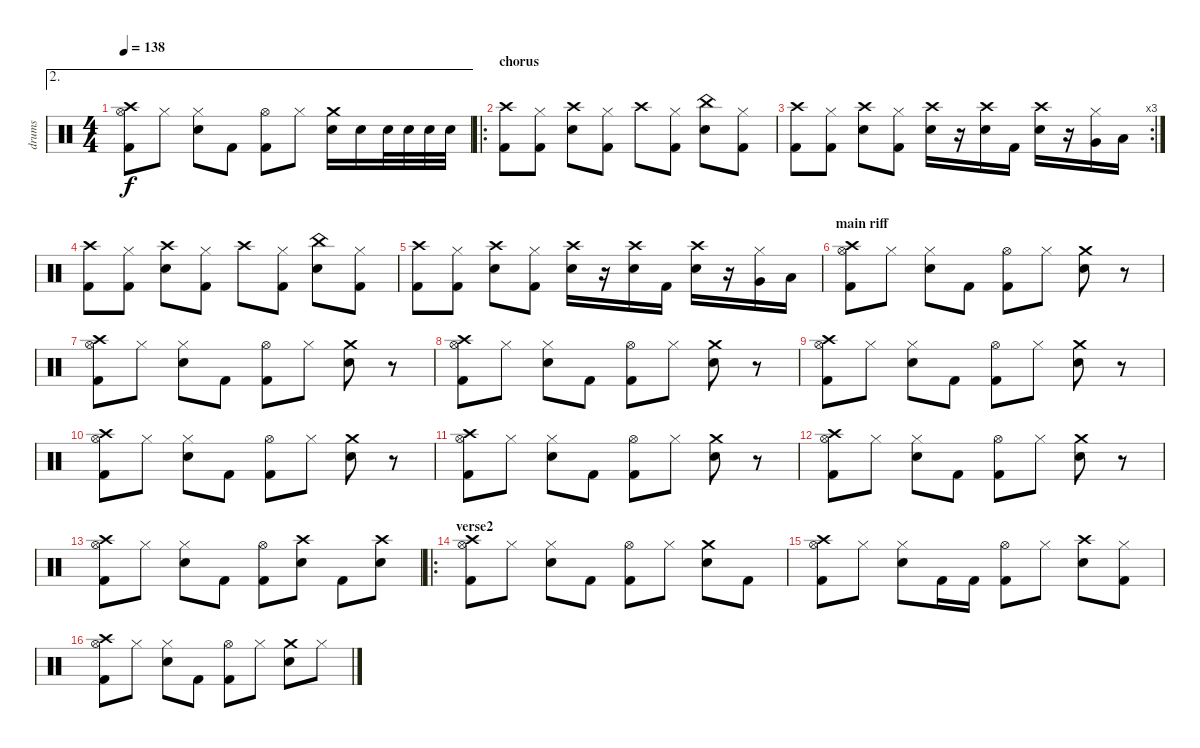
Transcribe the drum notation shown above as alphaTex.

\track ("drums" "drums") {instrument percussion}
\staff {score}
\articulation defaults
\ae 2
\ts (4 4)
\tempo 138
\clef neutral
\ks c
("Crash high (hit)" "Hi-Hat (open)" "Kick (hit) 2").8{dy f} "Hi-Hat (closed)".8 ("Hi-Hat (closed)" "Electric Snare (hit)").8 "Kick (hit) 2".8 ("Hi-Hat (open)" "Kick (hit) 2").8 "Hi-Hat (closed)".8 ("Crash medium (hit)" "Electric Snare (hit)").16 "Electric Snare (hit)".16 "Electric Snare (hit)".32 "Electric Snare (hit)".32 "Electric Snare (hit)".32 "Electric Snare (hit)".32 |
\ro
\section ("" "chorus")
("Crash high (hit)" "Kick (hit) 2").8 ("Hi-Hat (closed)" "Kick (hit) 2").8 ("Crash high (hit)" "Electric Snare (hit)").8 ("Hi-Hat (closed)" "Kick (hit) 2").8 "Crash high (hit)".8 ("Hi-Hat (closed)" "Kick (hit) 2").8 ("China (hit)" "Electric Snare (hit)").8 ("Hi-Hat (closed)" "Kick (hit) 2").8 |
\rc 3
("Crash high (hit)" "Kick (hit) 2").8 ("Hi-Hat (closed)" "Kick (hit) 2").8 ("Crash high (hit)" "Electric Snare (hit)").8 ("Hi-Hat (closed)" "Kick (hit) 2").8 ("Crash high (hit)" "Electric Snare (hit)").16 r.16 ("Crash high (hit)" "Electric Snare (hit)").16 "Kick (hit) 2".16 ("Crash high (hit)" "Electric Snare (hit)").16 r.16 ("Hi-Hat (closed)" "Very Low Tom (hit)").16 "Low Floor Tom (hit)".16 |
("Crash high (hit)" "Kick (hit) 2").8 ("Hi-Hat (closed)" "Kick (hit) 2").8 ("Crash high (hit)" "Electric Snare (hit)").8 ("Hi-Hat (closed)" "Kick (hit) 2").8 "Crash high (hit)".8 ("Hi-Hat (closed)" "Kick (hit) 2").8 ("China (hit)" "Electric Snare (hit)").8 ("Hi-Hat (closed)" "Kick (hit) 2").8 |
("Crash high (hit)" "Kick (hit) 2").8 ("Hi-Hat (closed)" "Kick (hit) 2").8 ("Crash high (hit)" "Electric Snare (hit)").8 ("Hi-Hat (closed)" "Kick (hit) 2").8 ("Crash high (hit)" "Electric Snare (hit)").16 r.16 ("Crash high (hit)" "Electric Snare (hit)").16 "Kick (hit) 2".16 ("Crash high (hit)" "Electric Snare (hit)").16 r.16 ("Hi-Hat (closed)" "Very Low Tom (hit)").16 "Low Floor Tom (hit)".16 |
\section ("" "main riff")
("Crash high (hit)" "Hi-Hat (open)" "Kick (hit) 2").8 "Hi-Hat (closed)".8 ("Hi-Hat (closed)" "Electric Snare (hit)").8 "Kick (hit) 2".8 ("Hi-Hat (open)" "Kick (hit) 2").8 "Hi-Hat (closed)".8 ("Crash medium (hit)" "Electric Snare (hit)").8 r.8 |
("Crash high (hit)" "Hi-Hat (open)" "Kick (hit) 2").8 "Hi-Hat (closed)".8 ("Hi-Hat (closed)" "Electric Snare (hit)").8 "Kick (hit) 2".8 ("Hi-Hat (open)" "Kick (hit) 2").8 "Hi-Hat (closed)".8 ("Crash medium (hit)" "Electric Snare (hit)").8 r.8 |
("Crash high (hit)" "Hi-Hat (open)" "Kick (hit) 2").8 "Hi-Hat (closed)".8 ("Hi-Hat (closed)" "Electric Snare (hit)").8 "Kick (hit) 2".8 ("Hi-Hat (open)" "Kick (hit) 2").8 "Hi-Hat (closed)".8 ("Crash medium (hit)" "Electric Snare (hit)").8 r.8 |
("Crash high (hit)" "Hi-Hat (open)" "Kick (hit) 2").8 "Hi-Hat (closed)".8 ("Hi-Hat (closed)" "Electric Snare (hit)").8 "Kick (hit) 2".8 ("Hi-Hat (open)" "Kick (hit) 2").8 "Hi-Hat (closed)".8 ("Crash medium (hit)" "Electric Snare (hit)").8 r.8 |
("Crash high (hit)" "Hi-Hat (open)" "Kick (hit) 2").8 "Hi-Hat (closed)".8 ("Hi-Hat (closed)" "Electric Snare (hit)").8 "Kick (hit) 2".8 ("Hi-Hat (open)" "Kick (hit) 2").8 "Hi-Hat (closed)".8 ("Crash medium (hit)" "Electric Snare (hit)").8 r.8 |
("Crash high (hit)" "Hi-Hat (open)" "Kick (hit) 2").8 "Hi-Hat (closed)".8 ("Hi-Hat (closed)" "Electric Snare (hit)").8 "Kick (hit) 2".8 ("Hi-Hat (open)" "Kick (hit) 2").8 "Hi-Hat (closed)".8 ("Crash medium (hit)" "Electric Snare (hit)").8 r.8 |
("Crash high (hit)" "Hi-Hat (open)" "Kick (hit) 2").8 "Hi-Hat (closed)".8 ("Hi-Hat (closed)" "Electric Snare (hit)").8 "Kick (hit) 2".8 ("Hi-Hat (open)" "Kick (hit) 2").8 "Hi-Hat (closed)".8 ("Crash medium (hit)" "Electric Snare (hit)").8 r.8 |
("Crash high (hit)" "Hi-Hat (open)" "Kick (hit) 2").8 "Hi-Hat (closed)".8 ("Hi-Hat (closed)" "Electric Snare (hit)").8 "Kick (hit) 2".8 ("Hi-Hat (open)" "Kick (hit) 2").8 ("Crash high (hit)" "Electric Snare (hit)").8 "Kick (hit) 2".8 ("Crash high (hit)" "Electric Snare (hit)").8 |
\ro
\section ("" "verse2")
("Crash high (hit)" "Hi-Hat (open)" "Kick (hit) 2").8 "Hi-Hat (closed)".8 ("Hi-Hat (closed)" "Electric Snare (hit)").8 "Kick (hit) 2".8 ("Hi-Hat (open)" "Kick (hit) 2").8 "Hi-Hat (closed)".8 ("Crash medium (hit)" "Electric Snare (hit)").8 "Kick (hit) 2".8 |
("Crash high (hit)" "Hi-Hat (open)" "Kick (hit) 2").8 "Hi-Hat (closed)".8 ("Hi-Hat (closed)" "Electric Snare (hit)").8 "Kick (hit) 2".16 "Kick (hit) 2".16 ("Hi-Hat (open)" "Kick (hit) 2").8 "Hi-Hat (closed)".8 ("Crash high (hit)" "Electric Snare (hit)").8 ("Hi-Hat (closed)" "Kick (hit) 2").8 |
("Crash high (hit)" "Hi-Hat (open)" "Kick (hit) 2").8 "Hi-Hat (closed)".8 ("Hi-Hat (closed)" "Electric Snare (hit)").8 "Kick (hit) 2".8 ("Hi-Hat (open)" "Kick (hit) 2").8 "Hi-Hat (closed)".8 ("Crash medium (hit)" "Electric Snare (hit)").8 "Hi-Hat (closed)".8
